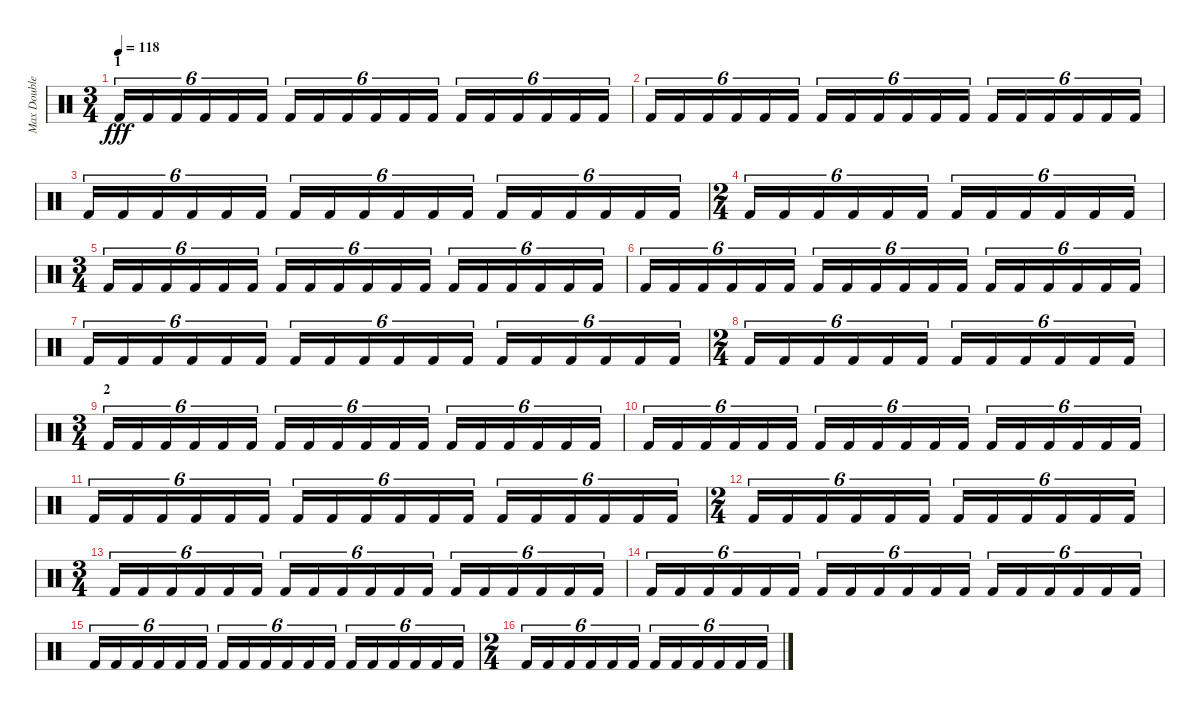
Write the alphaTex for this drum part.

\track ("Max Double Pedal" "Max Double") {instrument percussion}
\staff {score}
\articulation defaults
\ts (3 4)
\section ("" "1")
\tempo 118
\clef neutral
\ks c "Kick (hit) 2".16{tu (6 4) dy fff} "Kick (hit) 2".16{tu (6 4)} "Kick (hit) 2".16{tu (6 4)} "Kick (hit) 2".16{tu (6 4)} "Kick (hit) 2".16{tu (6 4)} "Kick (hit) 2".16{tu (6 4)} "Kick (hit) 2".16{tu (6 4)} "Kick (hit) 2".16{tu (6 4)} "Kick (hit) 2".16{tu (6 4)} "Kick (hit) 2".16{tu (6 4)} "Kick (hit) 2".16{tu (6 4)} "Kick (hit) 2".16{tu (6 4)} "Kick (hit) 2".16{tu (6 4)} "Kick (hit) 2".16{tu (6 4)} "Kick (hit) 2".16{tu (6 4)} "Kick (hit) 2".16{tu (6 4)} "Kick (hit) 2".16{tu (6 4)} "Kick (hit) 2".16{tu (6 4)}
|
"Kick (hit) 2".16{tu (6 4)} "Kick (hit) 2".16{tu (6 4)} "Kick (hit) 2".16{tu (6 4)} "Kick (hit) 2".16{tu (6 4)} "Kick (hit) 2".16{tu (6 4)} "Kick (hit) 2".16{tu (6 4)} "Kick (hit) 2".16{tu (6 4)} "Kick (hit) 2".16{tu (6 4)} "Kick (hit) 2".16{tu (6 4)} "Kick (hit) 2".16{tu (6 4)} "Kick (hit) 2".16{tu (6 4)} "Kick (hit) 2".16{tu (6 4)} "Kick (hit) 2".16{tu (6 4)} "Kick (hit) 2".16{tu (6 4)} "Kick (hit) 2".16{tu (6 4)} "Kick (hit) 2".16{tu (6 4)} "Kick (hit) 2".16{tu (6 4)} "Kick (hit) 2".16{tu (6 4)} |
"Kick (hit) 2".16{tu (6 4)} "Kick (hit) 2".16{tu (6 4)} "Kick (hit) 2".16{tu (6 4)} "Kick (hit) 2".16{tu (6 4)} "Kick (hit) 2".16{tu (6 4)} "Kick (hit) 2".16{tu (6 4)} "Kick (hit) 2".16{tu (6 4)} "Kick (hit) 2".16{tu (6 4)} "Kick (hit) 2".16{tu (6 4)} "Kick (hit) 2".16{tu (6 4)} "Kick (hit) 2".16{tu (6 4)} "Kick (hit) 2".16{tu (6 4)} "Kick (hit) 2".16{tu (6 4)} "Kick (hit) 2".16{tu (6 4)} "Kick (hit) 2".16{tu (6 4)} "Kick (hit) 2".16{tu (6 4)} "Kick (hit) 2".16{tu (6 4)} "Kick (hit) 2".16{tu (6 4)} |
\ts (2 4)
"Kick (hit) 2".16{tu (6 4)} "Kick (hit) 2".16{tu (6 4)} "Kick (hit) 2".16{tu (6 4)} "Kick (hit) 2".16{tu (6 4)} "Kick (hit) 2".16{tu (6 4)} "Kick (hit) 2".16{tu (6 4)} "Kick (hit) 2".16{tu (6 4)} "Kick (hit) 2".16{tu (6 4)} "Kick (hit) 2".16{tu (6 4)} "Kick (hit) 2".16{tu (6 4)} "Kick (hit) 2".16{tu (6 4)} "Kick (hit) 2".16{tu (6 4)} |
\ts (3 4)
"Kick (hit) 2".16{tu (6 4)} "Kick (hit) 2".16{tu (6 4)} "Kick (hit) 2".16{tu (6 4)} "Kick (hit) 2".16{tu (6 4)} "Kick (hit) 2".16{tu (6 4)} "Kick (hit) 2".16{tu (6 4)} "Kick (hit) 2".16{tu (6 4)} "Kick (hit) 2".16{tu (6 4)} "Kick (hit) 2".16{tu (6 4)} "Kick (hit) 2".16{tu (6 4)} "Kick (hit) 2".16{tu (6 4)} "Kick (hit) 2".16{tu (6 4)} "Kick (hit) 2".16{tu (6 4)} "Kick (hit) 2".16{tu (6 4)} "Kick (hit) 2".16{tu (6 4)} "Kick (hit) 2".16{tu (6 4)} "Kick (hit) 2".16{tu (6 4)} "Kick (hit) 2".16{tu (6 4)} |
"Kick (hit) 2".16{tu (6 4)} "Kick (hit) 2".16{tu (6 4)} "Kick (hit) 2".16{tu (6 4)} "Kick (hit) 2".16{tu (6 4)} "Kick (hit) 2".16{tu (6 4)} "Kick (hit) 2".16{tu (6 4)} "Kick (hit) 2".16{tu (6 4)} "Kick (hit) 2".16{tu (6 4)} "Kick (hit) 2".16{tu (6 4)} "Kick (hit) 2".16{tu (6 4)} "Kick (hit) 2".16{tu (6 4)} "Kick (hit) 2".16{tu (6 4)} "Kick (hit) 2".16{tu (6 4)} "Kick (hit) 2".16{tu (6 4)} "Kick (hit) 2".16{tu (6 4)} "Kick (hit) 2".16{tu (6 4)} "Kick (hit) 2".16{tu (6 4)} "Kick (hit) 2".16{tu (6 4)} |
"Kick (hit) 2".16{tu (6 4)} "Kick (hit) 2".16{tu (6 4)} "Kick (hit) 2".16{tu (6 4)} "Kick (hit) 2".16{tu (6 4)} "Kick (hit) 2".16{tu (6 4)} "Kick (hit) 2".16{tu (6 4)} "Kick (hit) 2".16{tu (6 4)} "Kick (hit) 2".16{tu (6 4)} "Kick (hit) 2".16{tu (6 4)} "Kick (hit) 2".16{tu (6 4)} "Kick (hit) 2".16{tu (6 4)} "Kick (hit) 2".16{tu (6 4)} "Kick (hit) 2".16{tu (6 4)} "Kick (hit) 2".16{tu (6 4)} "Kick (hit) 2".16{tu (6 4)} "Kick (hit) 2".16{tu (6 4)} "Kick (hit) 2".16{tu (6 4)} "Kick (hit) 2".16{tu (6 4)} |
\ts (2 4)
"Kick (hit) 2".16{tu (6 4)} "Kick (hit) 2".16{tu (6 4)} "Kick (hit) 2".16{tu (6 4)} "Kick (hit) 2".16{tu (6 4)} "Kick (hit) 2".16{tu (6 4)} "Kick (hit) 2".16{tu (6 4)} "Kick (hit) 2".16{tu (6 4)} "Kick (hit) 2".16{tu (6 4)} "Kick (hit) 2".16{tu (6 4)} "Kick (hit) 2".16{tu (6 4)} "Kick (hit) 2".16{tu (6 4)} "Kick (hit) 2".16{tu (6 4)} |
\ts (3 4)
\section ("" "2")
"Kick (hit) 2".16{tu (6 4)} "Kick (hit) 2".16{tu (6 4)} "Kick (hit) 2".16{tu (6 4)} "Kick (hit) 2".16{tu (6 4)} "Kick (hit) 2".16{tu (6 4)} "Kick (hit) 2".16{tu (6 4)} "Kick (hit) 2".16{tu (6 4)} "Kick (hit) 2".16{tu (6 4)} "Kick (hit) 2".16{tu (6 4)} "Kick (hit) 2".16{tu (6 4)} "Kick (hit) 2".16{tu (6 4)} "Kick (hit) 2".16{tu (6 4)} "Kick (hit) 2".16{tu (6 4)} "Kick (hit) 2".16{tu (6 4)} "Kick (hit) 2".16{tu (6 4)} "Kick (hit) 2".16{tu (6 4)} "Kick (hit) 2".16{tu (6 4)} "Kick (hit) 2".16{tu (6 4)} |
"Kick (hit) 2".16{tu (6 4)} "Kick (hit) 2".16{tu (6 4)} "Kick (hit) 2".16{tu (6 4)} "Kick (hit) 2".16{tu (6 4)} "Kick (hit) 2".16{tu (6 4)} "Kick (hit) 2".16{tu (6 4)} "Kick (hit) 2".16{tu (6 4)} "Kick (hit) 2".16{tu (6 4)} "Kick (hit) 2".16{tu (6 4)} "Kick (hit) 2".16{tu (6 4)} "Kick (hit) 2".16{tu (6 4)} "Kick (hit) 2".16{tu (6 4)} "Kick (hit) 2".16{tu (6 4)} "Kick (hit) 2".16{tu (6 4)} "Kick (hit) 2".16{tu (6 4)} "Kick (hit) 2".16{tu (6 4)} "Kick (hit) 2".16{tu (6 4)} "Kick (hit) 2".16{tu (6 4)} |
"Kick (hit) 2".16{tu (6 4)} "Kick (hit) 2".16{tu (6 4)} "Kick (hit) 2".16{tu (6 4)} "Kick (hit) 2".16{tu (6 4)} "Kick (hit) 2".16{tu (6 4)} "Kick (hit) 2".16{tu (6 4)} "Kick (hit) 2".16{tu (6 4)} "Kick (hit) 2".16{tu (6 4)} "Kick (hit) 2".16{tu (6 4)} "Kick (hit) 2".16{tu (6 4)} "Kick (hit) 2".16{tu (6 4)} "Kick (hit) 2".16{tu (6 4)} "Kick (hit) 2".16{tu (6 4)} "Kick (hit) 2".16{tu (6 4)} "Kick (hit) 2".16{tu (6 4)} "Kick (hit) 2".16{tu (6 4)} "Kick (hit) 2".16{tu (6 4)} "Kick (hit) 2".16{tu (6 4)} |
\ts (2 4)
"Kick (hit) 2".16{tu (6 4)} "Kick (hit) 2".16{tu (6 4)} "Kick (hit) 2".16{tu (6 4)} "Kick (hit) 2".16{tu (6 4)} "Kick (hit) 2".16{tu (6 4)} "Kick (hit) 2".16{tu (6 4)} "Kick (hit) 2".16{tu (6 4)} "Kick (hit) 2".16{tu (6 4)} "Kick (hit) 2".16{tu (6 4)} "Kick (hit) 2".16{tu (6 4)} "Kick (hit) 2".16{tu (6 4)} "Kick (hit) 2".16{tu (6 4)} |
\ts (3 4)
"Kick (hit) 2".16{tu (6 4)} "Kick (hit) 2".16{tu (6 4)} "Kick (hit) 2".16{tu (6 4)} "Kick (hit) 2".16{tu (6 4)} "Kick (hit) 2".16{tu (6 4)} "Kick (hit) 2".16{tu (6 4)} "Kick (hit) 2".16{tu (6 4)} "Kick (hit) 2".16{tu (6 4)} "Kick (hit) 2".16{tu (6 4)} "Kick (hit) 2".16{tu (6 4)} "Kick (hit) 2".16{tu (6 4)} "Kick (hit) 2".16{tu (6 4)} "Kick (hit) 2".16{tu (6 4)} "Kick (hit) 2".16{tu (6 4)} "Kick (hit) 2".16{tu (6 4)} "Kick (hit) 2".16{tu (6 4)} "Kick (hit) 2".16{tu (6 4)} "Kick (hit) 2".16{tu (6 4)} |
"Kick (hit) 2".16{tu (6 4)} "Kick (hit) 2".16{tu (6 4)} "Kick (hit) 2".16{tu (6 4)} "Kick (hit) 2".16{tu (6 4)} "Kick (hit) 2".16{tu (6 4)} "Kick (hit) 2".16{tu (6 4)} "Kick (hit) 2".16{tu (6 4)} "Kick (hit) 2".16{tu (6 4)} "Kick (hit) 2".16{tu (6 4)} "Kick (hit) 2".16{tu (6 4)} "Kick (hit) 2".16{tu (6 4)} "Kick (hit) 2".16{tu (6 4)} "Kick (hit) 2".16{tu (6 4)} "Kick (hit) 2".16{tu (6 4)} "Kick (hit) 2".16{tu (6 4)} "Kick (hit) 2".16{tu (6 4)} "Kick (hit) 2".16{tu (6 4)} "Kick (hit) 2".16{tu (6 4)} |
"Kick (hit) 2".16{tu (6 4)} "Kick (hit) 2".16{tu (6 4)} "Kick (hit) 2".16{tu (6 4)} "Kick (hit) 2".16{tu (6 4)} "Kick (hit) 2".16{tu (6 4)} "Kick (hit) 2".16{tu (6 4)} "Kick (hit) 2".16{tu (6 4)} "Kick (hit) 2".16{tu (6 4)} "Kick (hit) 2".16{tu (6 4)} "Kick (hit) 2".16{tu (6 4)} "Kick (hit) 2".16{tu (6 4)} "Kick (hit) 2".16{tu (6 4)} "Kick (hit) 2".16{tu (6 4)} "Kick (hit) 2".16{tu (6 4)} "Kick (hit) 2".16{tu (6 4)} "Kick (hit) 2".16{tu (6 4)} "Kick (hit) 2".16{tu (6 4)} "Kick (hit) 2".16{tu (6 4)} |
\ts (2 4)
"Kick (hit) 2".16{tu (6 4)} "Kick (hit) 2".16{tu (6 4)} "Kick (hit) 2".16{tu (6 4)} "Kick (hit) 2".16{tu (6 4)} "Kick (hit) 2".16{tu (6 4)} "Kick (hit) 2".16{tu (6 4)} "Kick (hit) 2".16{tu (6 4)} "Kick (hit) 2".16{tu (6 4)} "Kick (hit) 2".16{tu (6 4)} "Kick (hit) 2".16{tu (6 4)} "Kick (hit) 2".16{tu (6 4)} "Kick (hit) 2".16{tu (6 4)}
